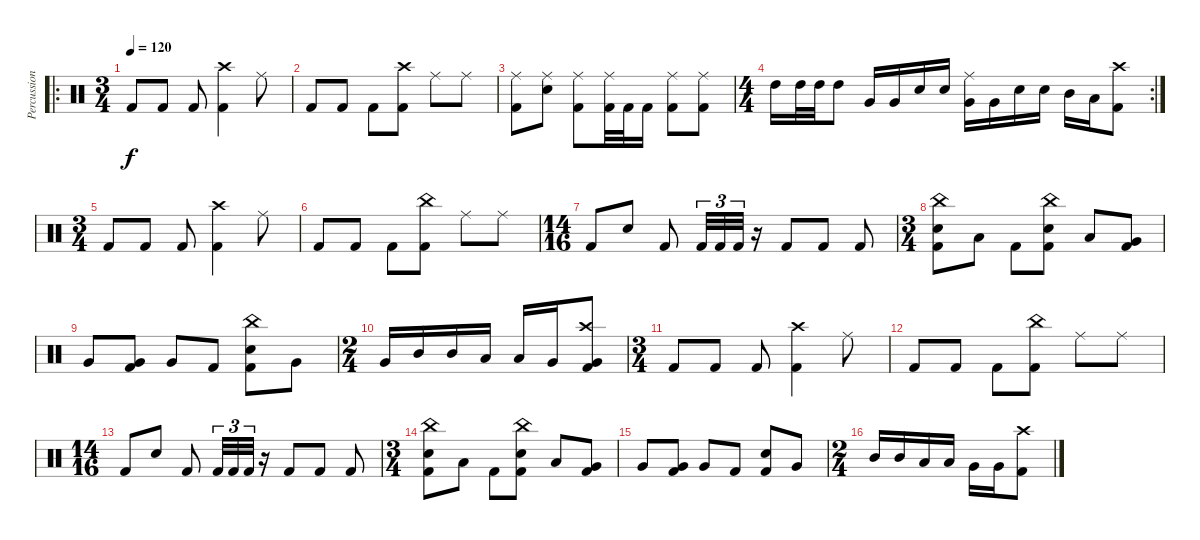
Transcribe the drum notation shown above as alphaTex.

\track ("Percussion" "Percussion") {instrument percussion}
\staff {score}
\articulation defaults
\ro
\ts (3 4)
\tempo 120
\clef neutral
\ks c "Kick (hit) 2".8{dy f} "Kick (hit) 2".8 "Kick (hit) 2".8
("Crash high (hit)" "Kick (hit) 2").4 "Ride (middle)".8 |
"Kick (hit) 2".8 "Kick (hit) 2".8 "Kick (hit) 2".8 ("Crash high (hit)" "Kick (hit) 2").8 "Ride (middle)".8 "Ride (middle)".8 |
("Ride (middle)" "Kick (hit) 2").8 ("Ride (middle)" "Snare (hit) 2").8 ("Ride (middle)" "Kick (hit) 2").8 ("Ride (middle)" "Kick (hit) 2").32 "Kick (hit) 2".32 "Kick (hit) 2".16 ("Ride (middle)" "Kick (hit) 2").8 ("Ride (middle)" "Kick (hit) 2").8 |
\rc 2
\ts (4 4)
"High Tom (hit)".16 "High Tom (hit)".32 "High Tom (hit)".32 "High Tom (hit)".8 "Very Low Tom (hit)".16 "Very Low Tom (hit)".16 "Snare (hit) 2".16 "Snare (hit) 2".16 ("Ride (middle)" "Very Low Tom (hit)").16 "Very Low Tom (hit)".16 "Snare (hit) 2".16 "Snare (hit) 2".16 "Mid Tom (hit)".16 "Low Tom (hit)".16 ("Crash high (hit)" "Kick (hit) 2").8 |
\ts (3 4)
"Kick (hit) 2".8 "Kick (hit) 2".8 "Kick (hit) 2".8 ("Crash high (hit)" "Kick (hit) 2").4 "Ride (middle)".8 |
"Kick (hit) 2".8 "Kick (hit) 2".8 "Kick (hit) 2".8 ("China (hit)" "Kick (hit) 2").8 "Ride (middle)".8 "Ride (middle)".8 |
\ts (14 16)
"Kick (hit) 2".8 "Snare (hit) 2".8 "Kick (hit) 2".8 "Kick (hit) 2".32{tu (3 2)} "Kick (hit) 2".32{tu (3 2)} "Kick (hit) 2".32{tu (3 2)} r.16 "Kick (hit) 2".8 "Kick (hit) 2".8 "Kick (hit) 2".8 |
\ts (3 4)
("China (hit)" "Snare (hit) 2" "Kick (hit) 2").8 "Low Tom (hit)".8 "Kick (hit) 2".8 ("China (hit)" "Snare (hit) 2" "Kick (hit) 2").8 "Low Tom (hit)".8 ("Very Low Tom (hit)" "Kick (hit) 2").8 |
"Very Low Tom (hit)".8 ("Very Low Tom (hit)" "Kick (hit) 2").8 "Very Low Tom (hit)".8 "Kick (hit) 2".8 ("China (hit)" "Snare (hit) 2" "Kick (hit) 2").8 "Very Low Tom (hit)".8 |
\ts (2 4)
"Very Low Tom (hit)".16 "Mid Tom (hit)".16 "Mid Tom (hit)".16 "Low Tom (hit)".16 "Low Tom (hit)".16 "Very Low Tom (hit)".16 ("Crash high (hit)" "Very Low Tom (hit)" "Kick (hit) 2").8 |
\ts (3 4)
"Kick (hit) 2".8 "Kick (hit) 2".8 "Kick (hit) 2".8 ("Crash high (hit)" "Kick (hit) 2").4 "Ride (middle)".8 |
"Kick (hit) 2".8 "Kick (hit) 2".8 "Kick (hit) 2".8 ("China (hit)" "Kick (hit) 2").8 "Ride (middle)".8 "Ride (middle)".8 |
\ts (14 16)
"Kick (hit) 2".8 "Snare (hit) 2".8 "Kick (hit) 2".8 "Kick (hit) 2".32{tu (3 2)} "Kick (hit) 2".32{tu (3 2)} "Kick (hit) 2".32{tu (3 2)} r.16 "Kick (hit) 2".8 "Kick (hit) 2".8 "Kick (hit) 2".8 |
\ts (3 4)
("China (hit)" "Snare (hit) 2" "Kick (hit) 2").8 "Low Tom (hit)".8 "Kick (hit) 2".8 ("China (hit)" "Snare (hit) 2" "Kick (hit) 2").8 "Low Tom (hit)".8 ("Very Low Tom (hit)" "Kick (hit) 2").8 |
"Very Low Tom (hit)".8 ("Very Low Tom (hit)" "Kick (hit) 2").8 "Very Low Tom (hit)".8 "Kick (hit) 2".8 ("Snare (hit) 2" "Kick (hit) 2").8 "Very Low Tom (hit)".8 |
\ts (2 4)
"Mid Tom (hit)".16 "Mid Tom (hit)".16 "Low Tom (hit)".16 "Low Tom (hit)".16 "Very Low Tom (hit)".16 "Very Low Tom (hit)".16 ("Crash high (hit)" "Kick (hit) 2").8
